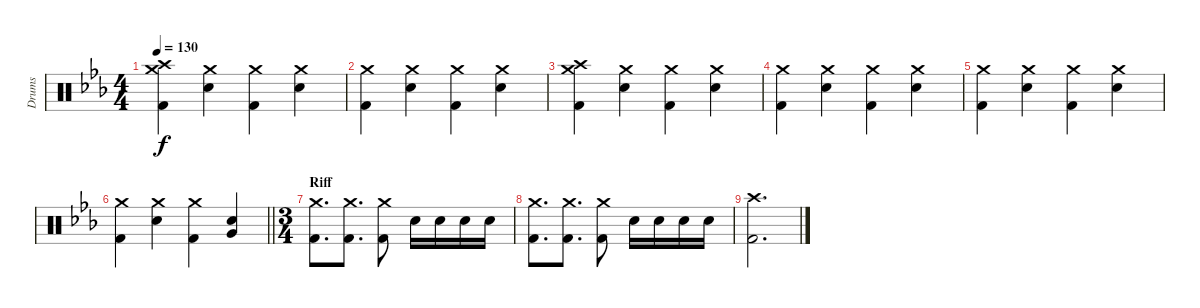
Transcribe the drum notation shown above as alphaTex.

\track ("Drums" "Drums") {instrument percussion}
\staff {score}
\articulation defaults
\ts (4 4)
\tempo 130
\clef neutral
\ks eb
("Crash medium (hit)" "Kick (hit) 2" "Crash high (hit)").4{dy f} ("Crash medium (hit)" "Electric Snare (hit)").4 ("Crash medium (hit)" "Kick (hit) 2").4 ("Crash medium (hit)" "Electric Snare (hit)").4 |
("Crash medium (hit)" "Kick (hit) 2").4 ("Crash medium (hit)" "Electric Snare (hit)").4 ("Crash medium (hit)" "Kick (hit) 2").4 ("Crash medium (hit)" "Electric Snare (hit)").4 |
("Crash medium (hit)" "Kick (hit) 2" "Crash high (hit)").4 ("Crash medium (hit)" "Electric Snare (hit)").4 ("Crash medium (hit)" "Kick (hit) 2").4 ("Crash medium (hit)" "Electric Snare (hit)").4 |
("Crash medium (hit)" "Kick (hit) 2").4 ("Crash medium (hit)" "Electric Snare (hit)").4 ("Crash medium (hit)" "Kick (hit) 2").4 ("Crash medium (hit)" "Electric Snare (hit)").4 |
("Crash medium (hit)" "Kick (hit) 2").4 ("Crash medium (hit)" "Electric Snare (hit)").4 ("Crash medium (hit)" "Kick (hit) 2").4 ("Crash medium (hit)" "Electric Snare (hit)").4 |
\barLineRight lightlight
("Crash medium (hit)" "Kick (hit) 2").4 ("Crash medium (hit)" "Electric Snare (hit)").4 ("Crash medium (hit)" "Kick (hit) 2").4 ("Electric Snare (hit)" "Very Low Tom (hit)").4 |
\ts (3 4)
\section ("" "Riff")
("Crash medium (hit)" "Kick (hit) 2").8{d} ("Crash medium (hit)" "Kick (hit) 2").8{d} ("Crash medium (hit)" "Kick (hit) 2").8 "Electric Snare (hit)".16 "Electric Snare (hit)".16 "Electric Snare (hit)".16 "Electric Snare (hit)".16 |
("Crash medium (hit)" "Kick (hit) 2").8{d} ("Crash medium (hit)" "Kick (hit) 2").8{d} ("Crash medium (hit)" "Kick (hit) 2").8 "Electric Snare (hit)".16 "Electric Snare (hit)".16 "Electric Snare (hit)".16 "Electric Snare (hit)".16 |
("Crash high (hit)" "Kick (hit) 2").2{d}
